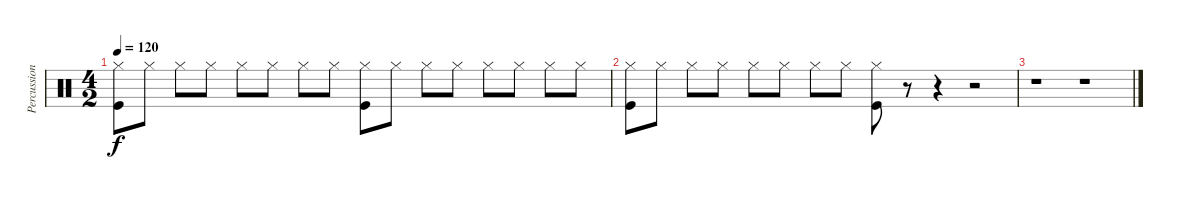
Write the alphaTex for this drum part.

\track ("Percussion" "Percussion") {instrument percussion}
\staff {score}
\articulation defaults
\ts (4 2)
\tempo 120
\clef neutral
\ks c
("Hi-Hat (closed)" "Kick (hit)").8{dy f} "Hi-Hat (closed)".8 "Hi-Hat (closed)".8 "Hi-Hat (closed)".8 "Hi-Hat (closed)".8 "Hi-Hat (closed)".8 "Hi-Hat (closed)".8 "Hi-Hat (closed)".8 ("Hi-Hat (closed)" "Kick (hit)").8 "Hi-Hat (closed)".8 "Hi-Hat (closed)".8 "Hi-Hat (closed)".8 "Hi-Hat (closed)".8 "Hi-Hat (closed)".8 "Hi-Hat (closed)".8 "Hi-Hat (closed)".8 |
("Hi-Hat (closed)" "Kick (hit)").8 "Hi-Hat (closed)".8 "Hi-Hat (closed)".8 "Hi-Hat (closed)".8 "Hi-Hat (closed)".8 "Hi-Hat (closed)".8 "Hi-Hat (closed)".8 "Hi-Hat (closed)".8 ("Hi-Hat (closed)" "Kick (hit)").8 r.8 r.4 r.2 |
r.1 r.1
